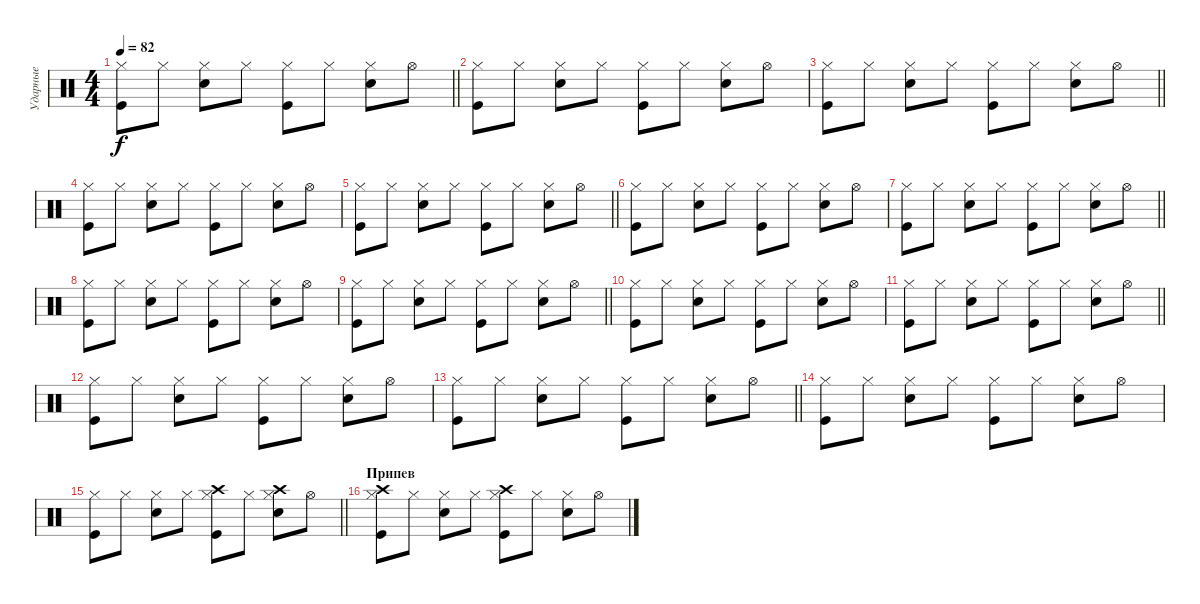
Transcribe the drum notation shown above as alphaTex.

\track ("Ударные" "Ударные") {instrument percussion}
\staff {score}
\articulation defaults
\ts (4 4)
\tempo 82
\clef neutral
\barLineRight lightlight
\ks c
("Kick (hit)" "Hi-Hat (closed)").8{dy f} "Hi-Hat (closed)".8 ("Electric Snare (hit)" "Hi-Hat (closed)").8 "Hi-Hat (closed)".8 ("Kick (hit)" "Hi-Hat (closed)").8 "Hi-Hat (closed)".8 ("Electric Snare (hit)" "Hi-Hat (closed)").8 "Hi-Hat (open)".8 |
("Kick (hit)" "Hi-Hat (closed)").8 "Hi-Hat (closed)".8 ("Electric Snare (hit)" "Hi-Hat (closed)").8 "Hi-Hat (closed)".8 ("Kick (hit)" "Hi-Hat (closed)").8 "Hi-Hat (closed)".8 ("Electric Snare (hit)" "Hi-Hat (closed)").8 "Hi-Hat (open)".8 |
\barLineRight lightlight
("Kick (hit)" "Hi-Hat (closed)").8 "Hi-Hat (closed)".8 ("Electric Snare (hit)" "Hi-Hat (closed)").8 "Hi-Hat (closed)".8 ("Kick (hit)" "Hi-Hat (closed)").8 "Hi-Hat (closed)".8 ("Electric Snare (hit)" "Hi-Hat (closed)").8 "Hi-Hat (open)".8 |
("Kick (hit)" "Hi-Hat (closed)").8 "Hi-Hat (closed)".8 ("Electric Snare (hit)" "Hi-Hat (closed)").8 "Hi-Hat (closed)".8 ("Kick (hit)" "Hi-Hat (closed)").8 "Hi-Hat (closed)".8 ("Electric Snare (hit)" "Hi-Hat (closed)").8 "Hi-Hat (open)".8 |
\barLineRight lightlight
("Kick (hit)" "Hi-Hat (closed)").8 "Hi-Hat (closed)".8 ("Electric Snare (hit)" "Hi-Hat (closed)").8 "Hi-Hat (closed)".8 ("Kick (hit)" "Hi-Hat (closed)").8 "Hi-Hat (closed)".8 ("Electric Snare (hit)" "Hi-Hat (closed)").8 "Hi-Hat (open)".8 |
("Kick (hit)" "Hi-Hat (closed)").8 "Hi-Hat (closed)".8 ("Electric Snare (hit)" "Hi-Hat (closed)").8 "Hi-Hat (closed)".8 ("Kick (hit)" "Hi-Hat (closed)").8 "Hi-Hat (closed)".8 ("Electric Snare (hit)" "Hi-Hat (closed)").8 "Hi-Hat (open)".8 |
\barLineRight lightlight
("Kick (hit)" "Hi-Hat (closed)").8 "Hi-Hat (closed)".8 ("Electric Snare (hit)" "Hi-Hat (closed)").8 "Hi-Hat (closed)".8 ("Kick (hit)" "Hi-Hat (closed)").8 "Hi-Hat (closed)".8 ("Electric Snare (hit)" "Hi-Hat (closed)").8 "Hi-Hat (open)".8 |
("Kick (hit)" "Hi-Hat (closed)").8 "Hi-Hat (closed)".8 ("Electric Snare (hit)" "Hi-Hat (closed)").8 "Hi-Hat (closed)".8 ("Kick (hit)" "Hi-Hat (closed)").8 "Hi-Hat (closed)".8 ("Electric Snare (hit)" "Hi-Hat (closed)").8 "Hi-Hat (open)".8 |
\barLineRight lightlight
("Kick (hit)" "Hi-Hat (closed)").8 "Hi-Hat (closed)".8 ("Electric Snare (hit)" "Hi-Hat (closed)").8 "Hi-Hat (closed)".8 ("Kick (hit)" "Hi-Hat (closed)").8 "Hi-Hat (closed)".8 ("Electric Snare (hit)" "Hi-Hat (closed)").8 "Hi-Hat (open)".8 |
("Kick (hit)" "Hi-Hat (closed)").8 "Hi-Hat (closed)".8 ("Electric Snare (hit)" "Hi-Hat (closed)").8 "Hi-Hat (closed)".8 ("Kick (hit)" "Hi-Hat (closed)").8 "Hi-Hat (closed)".8 ("Electric Snare (hit)" "Hi-Hat (closed)").8 "Hi-Hat (open)".8 |
\barLineRight lightlight
("Kick (hit)" "Hi-Hat (closed)").8 "Hi-Hat (closed)".8 ("Electric Snare (hit)" "Hi-Hat (closed)").8 "Hi-Hat (closed)".8 ("Kick (hit)" "Hi-Hat (closed)").8 "Hi-Hat (closed)".8 ("Electric Snare (hit)" "Hi-Hat (closed)").8 "Hi-Hat (open)".8 |
("Kick (hit)" "Hi-Hat (closed)").8 "Hi-Hat (closed)".8 ("Electric Snare (hit)" "Hi-Hat (closed)").8 "Hi-Hat (closed)".8 ("Kick (hit)" "Hi-Hat (closed)").8 "Hi-Hat (closed)".8 ("Electric Snare (hit)" "Hi-Hat (closed)").8 "Hi-Hat (open)".8 |
\barLineRight lightlight
("Kick (hit)" "Hi-Hat (closed)").8 "Hi-Hat (closed)".8 ("Electric Snare (hit)" "Hi-Hat (closed)").8 "Hi-Hat (closed)".8 ("Kick (hit)" "Hi-Hat (closed)").8 "Hi-Hat (closed)".8 ("Electric Snare (hit)" "Hi-Hat (closed)").8 "Hi-Hat (open)".8 |
("Kick (hit)" "Hi-Hat (closed)").8 "Hi-Hat (closed)".8 ("Electric Snare (hit)" "Hi-Hat (closed)").8 "Hi-Hat (closed)".8 ("Kick (hit)" "Hi-Hat (closed)").8 "Hi-Hat (closed)".8 ("Electric Snare (hit)" "Hi-Hat (closed)").8 "Hi-Hat (open)".8 |
\barLineRight lightlight
("Kick (hit)" "Hi-Hat (closed)").8 "Hi-Hat (closed)".8 ("Electric Snare (hit)" "Hi-Hat (closed)").8 "Hi-Hat (closed)".8 ("Kick (hit)" "Crash high (hit)" "Hi-Hat (closed)").8 "Hi-Hat (closed)".8 ("Electric Snare (hit)" "Crash high (hit)" "Hi-Hat (closed)").8 "Hi-Hat (open)".8 |
\section ("" "Припев")
("Kick (hit)" "Crash high (hit)" "Hi-Hat (closed)").8 "Hi-Hat (closed)".8 ("Electric Snare (hit)" "Hi-Hat (closed)").8 "Hi-Hat (closed)".8 ("Kick (hit)" "Crash high (hit)" "Hi-Hat (closed)").8 "Hi-Hat (closed)".8 ("Electric Snare (hit)" "Hi-Hat (closed)").8 "Hi-Hat (open)".8
